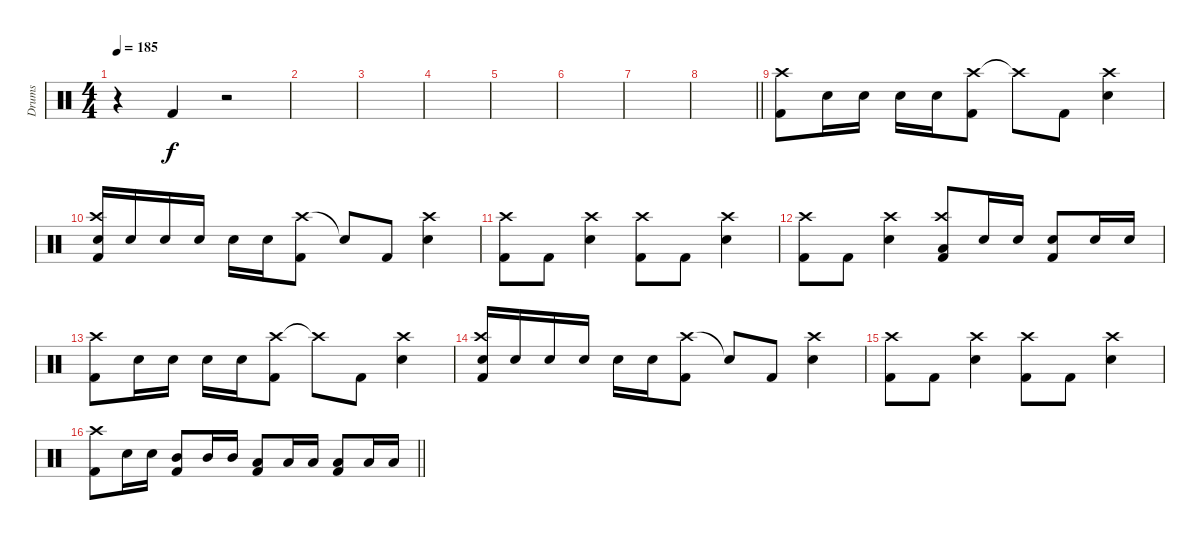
\track ("Drums" "Drums") {instrument percussion}
\staff {score}
\articulation defaults
\ts (4 4)
\tempo 185
\clef neutral
\ks c
r.4{dy f} "Kick (hit) 2".4 r.2 |
|
|
|
|
|
|
\barLineRight lightlight
|
("Crash high (hit)" "Kick (hit) 2").8 "Electric Snare (hit)".16 "Electric Snare (hit)".16 "Electric Snare (hit)".16 "Electric Snare (hit)".16 ("Crash high (hit)" "Kick (hit) 2").8 "Crash high (hit)"{t}.8 "Kick (hit) 2".8 ("Crash high (hit)" "Electric Snare (hit)").4 |
("Crash high (hit)" "Electric Snare (hit)" "Kick (hit) 2").16 "Electric Snare (hit)".16 "Electric Snare (hit)".16 "Electric Snare (hit)".16 "Electric Snare (hit)".16 "Electric Snare (hit)".16 ("Crash high (hit)" "Kick (hit) 2").8 "Snare (hit)"{t}.8 "Kick (hit) 2".8 ("Crash high (hit)" "Electric Snare (hit)").4 |
("Crash high (hit)" "Kick (hit) 2").8 "Kick (hit) 2".8 ("Crash high (hit)" "Electric Snare (hit)").4 ("Crash high (hit)" "Kick (hit) 2").8 "Kick (hit) 2".8 ("Crash high (hit)" "Electric Snare (hit)").4 |
("Crash high (hit)" "Kick (hit) 2").8 "Kick (hit) 2".8 ("Crash high (hit)" "Electric Snare (hit)").4 ("Crash high (hit)" "Low Floor Tom (hit)" "Kick (hit) 2").8 "Electric Snare (hit)".16 "Electric Snare (hit)".16 ("Electric Snare (hit)" "Kick (hit) 2").8 "Electric Snare (hit)".16 "Electric Snare (hit)".16 |
("Crash high (hit)" "Kick (hit) 2").8 "Electric Snare (hit)".16 "Electric Snare (hit)".16 "Electric Snare (hit)".16 "Electric Snare (hit)".16 ("Crash high (hit)" "Kick (hit) 2").8 "Crash high (hit)"{t}.8 "Kick (hit) 2".8 ("Crash high (hit)" "Electric Snare (hit)").4 |
("Crash high (hit)" "Electric Snare (hit)" "Kick (hit) 2").16 "Electric Snare (hit)".16 "Electric Snare (hit)".16 "Electric Snare (hit)".16 "Electric Snare (hit)".16 "Electric Snare (hit)".16 ("Crash high (hit)" "Kick (hit) 2").8 "Snare (hit)"{t}.8 "Kick (hit) 2".8 ("Crash high (hit)" "Electric Snare (hit)").4 |
("Crash high (hit)" "Kick (hit) 2").8 "Kick (hit) 2".8 ("Crash high (hit)" "Electric Snare (hit)").4 ("Crash high (hit)" "Kick (hit) 2").8 "Kick (hit) 2".8 ("Crash high (hit)" "Electric Snare (hit)").4 |
\barLineRight lightlight
("Crash high (hit)" "Kick (hit) 2").8 "Electric Snare (hit)".16 "Electric Snare (hit)".16 ("Mid Tom (hit)" "Kick (hit) 2").8 "Mid Tom (hit)".16 "Mid Tom (hit)".16 ("Low Tom (hit)" "Kick (hit) 2").8 "Low Tom (hit)".16 "Low Tom (hit)".16 ("Low Floor Tom (hit)" "Kick (hit) 2").8 "Low Floor Tom (hit)".16 "Low Floor Tom (hit)".16
